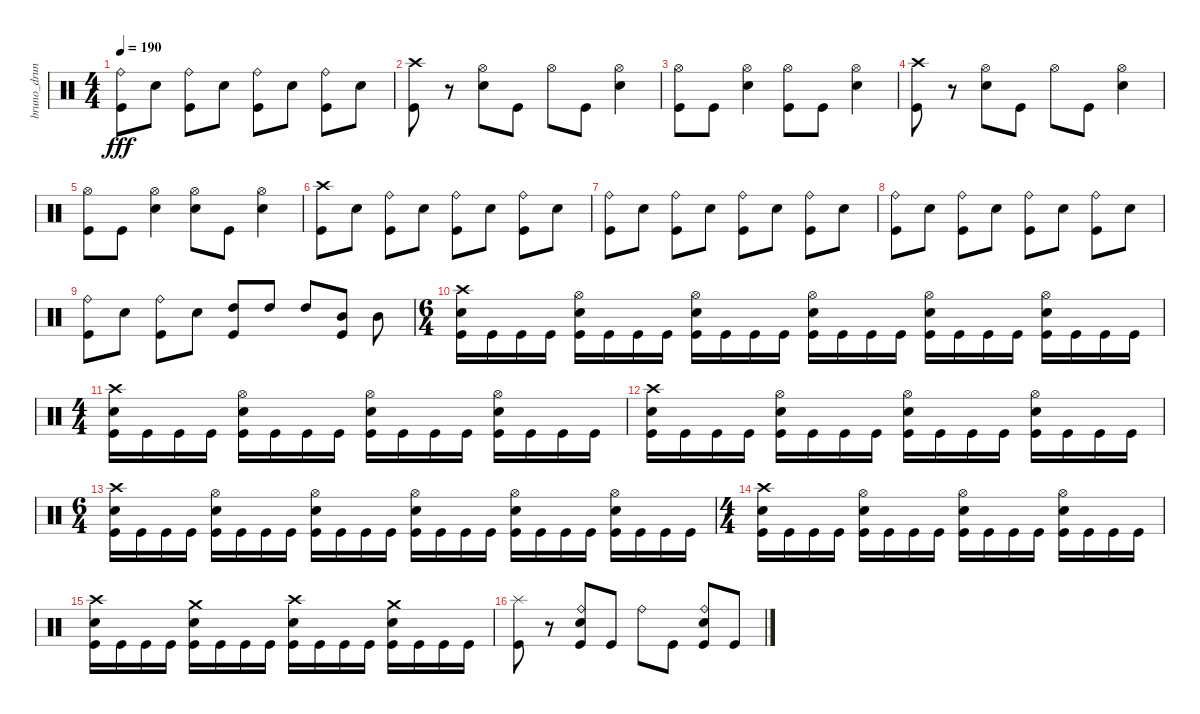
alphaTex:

\track ("bruno_druns" "bruno_drun") {instrument percussion}
\staff {score}
\articulation defaults
\ts (4 4)
\tempo 190
\clef neutral
\ks c
("Kick (hit)" "Ride (bell)").8{dy fff} "Electric Snare (hit)".8 ("Kick (hit)" "Ride (bell)").8 "Electric Snare (hit)".8 ("Kick (hit)" "Ride (bell)").8 "Electric Snare (hit)".8 ("Kick (hit)" "Ride (bell)").8 "Electric Snare (hit)".8 |
("Kick (hit)" "Crash high (hit)").8 r.8 ("Electric Snare (hit)" "Hi-Hat (open)").8 "Kick (hit)".8 "Hi-Hat (open)".8 "Kick (hit)".8 ("Electric Snare (hit)" "Hi-Hat (open)").4 |
("Kick (hit)" "Hi-Hat (open)").8 "Kick (hit)".8 ("Electric Snare (hit)" "Hi-Hat (open)").4 ("Kick (hit)" "Hi-Hat (open)").8 "Kick (hit)".8 ("Electric Snare (hit)" "Hi-Hat (open)").4 |
("Kick (hit)" "Crash high (hit)").8 r.8 ("Electric Snare (hit)" "Hi-Hat (open)").8 "Kick (hit)".8 "Hi-Hat (open)".8 "Kick (hit)".8 ("Electric Snare (hit)" "Hi-Hat (open)").4 |
("Kick (hit)" "Hi-Hat (open)").8 "Kick (hit)".8 ("Electric Snare (hit)" "Hi-Hat (open)").4 ("Electric Snare (hit)" "Hi-Hat (open)").8 "Kick (hit)".8 ("Electric Snare (hit)" "Hi-Hat (open)").4 |
("Kick (hit)" "Crash high (hit)").8 "Electric Snare (hit)".8 ("Kick (hit)" "Ride (bell)").8 "Electric Snare (hit)".8 ("Kick (hit)" "Ride (bell)").8 "Electric Snare (hit)".8 ("Kick (hit)" "Ride (bell)").8 "Electric Snare (hit)".8 |
("Kick (hit)" "Ride (bell)").8 "Electric Snare (hit)".8 ("Kick (hit)" "Ride (bell)").8 "Electric Snare (hit)".8 ("Kick (hit)" "Ride (bell)").8 "Electric Snare (hit)".8 ("Kick (hit)" "Ride (bell)").8 "Electric Snare (hit)".8 |
("Kick (hit)" "Ride (bell)").8 "Electric Snare (hit)".8 ("Kick (hit)" "Ride (bell)").8 "Electric Snare (hit)".8 ("Kick (hit)" "Ride (bell)").8 "Electric Snare (hit)".8 ("Kick (hit)" "Ride (bell)").8 "Electric Snare (hit)".8 |
("Kick (hit)" "Ride (bell)").8 "Electric Snare (hit)".8 ("Kick (hit)" "Ride (bell)").8 "Electric Snare (hit)".8 ("Kick (hit)" "High Tom (hit)").8 "High Tom (hit)".8 "High Tom (hit)".8 ("Kick (hit)" "Mid Tom (hit)").8 "Mid Tom (hit)".8 |
\ts (6 4)
("Kick (hit)" "Electric Snare (hit)" "Crash high (hit)").16 "Kick (hit)".16 "Kick (hit)".16 "Kick (hit)".16 ("Kick (hit)" "Electric Snare (hit)" "Hi-Hat (open)").16 "Kick (hit)".16 "Kick (hit)".16 "Kick (hit)".16 ("Kick (hit)" "Electric Snare (hit)" "Hi-Hat (open)").16 "Kick (hit)".16 "Kick (hit)".16 "Kick (hit)".16 ("Kick (hit)" "Electric Snare (hit)" "Hi-Hat (open)").16 "Kick (hit)".16 "Kick (hit)".16 "Kick (hit)".16 ("Kick (hit)" "Electric Snare (hit)" "Hi-Hat (open)").16 "Kick (hit)".16 "Kick (hit)".16 "Kick (hit)".16 ("Kick (hit)" "Electric Snare (hit)" "Hi-Hat (open)").16 "Kick (hit)".16 "Kick (hit)".16 "Kick (hit)".16 |
\ts (4 4)
("Kick (hit)" "Electric Snare (hit)" "Crash high (hit)").16 "Kick (hit)".16 "Kick (hit)".16 "Kick (hit)".16 ("Kick (hit)" "Electric Snare (hit)" "Hi-Hat (open)").16 "Kick (hit)".16 "Kick (hit)".16 "Kick (hit)".16 ("Kick (hit)" "Electric Snare (hit)" "Hi-Hat (open)").16 "Kick (hit)".16 "Kick (hit)".16 "Kick (hit)".16 ("Kick (hit)" "Electric Snare (hit)" "Hi-Hat (open)").16 "Kick (hit)".16 "Kick (hit)".16 "Kick (hit)".16 |
("Kick (hit)" "Electric Snare (hit)" "Crash high (hit)").16 "Kick (hit)".16 "Kick (hit)".16 "Kick (hit)".16 ("Kick (hit)" "Electric Snare (hit)" "Hi-Hat (open)").16 "Kick (hit)".16 "Kick (hit)".16 "Kick (hit)".16 ("Kick (hit)" "Electric Snare (hit)" "Hi-Hat (open)").16 "Kick (hit)".16 "Kick (hit)".16 "Kick (hit)".16 ("Kick (hit)" "Electric Snare (hit)" "Hi-Hat (open)").16 "Kick (hit)".16 "Kick (hit)".16 "Kick (hit)".16 |
\ts (6 4)
("Kick (hit)" "Electric Snare (hit)" "Crash high (hit)").16 "Kick (hit)".16 "Kick (hit)".16 "Kick (hit)".16 ("Kick (hit)" "Electric Snare (hit)" "Hi-Hat (open)").16 "Kick (hit)".16 "Kick (hit)".16 "Kick (hit)".16 ("Kick (hit)" "Electric Snare (hit)" "Hi-Hat (open)").16 "Kick (hit)".16 "Kick (hit)".16 "Kick (hit)".16 ("Kick (hit)" "Electric Snare (hit)" "Hi-Hat (open)").16 "Kick (hit)".16 "Kick (hit)".16 "Kick (hit)".16 ("Kick (hit)" "Electric Snare (hit)" "Hi-Hat (open)").16 "Kick (hit)".16 "Kick (hit)".16 "Kick (hit)".16 ("Kick (hit)" "Electric Snare (hit)" "Hi-Hat (open)").16 "Kick (hit)".16 "Kick (hit)".16 "Kick (hit)".16 |
\ts (4 4)
("Kick (hit)" "Electric Snare (hit)" "Crash high (hit)").16 "Kick (hit)".16 "Kick (hit)".16 "Kick (hit)".16 ("Kick (hit)" "Electric Snare (hit)" "Hi-Hat (open)").16 "Kick (hit)".16 "Kick (hit)".16 "Kick (hit)".16 ("Kick (hit)" "Electric Snare (hit)" "Hi-Hat (open)").16 "Kick (hit)".16 "Kick (hit)".16 "Kick (hit)".16 ("Kick (hit)" "Electric Snare (hit)" "Hi-Hat (open)").16 "Kick (hit)".16 "Kick (hit)".16 "Kick (hit)".16 |
("Kick (hit)" "Electric Snare (hit)" "Crash high (hit)").16 "Kick (hit)".16 "Kick (hit)".16 "Kick (hit)".16 ("Kick (hit)" "Electric Snare (hit)" "Crash medium (hit)").16 "Kick (hit)".16 "Kick (hit)".16 "Kick (hit)".16 ("Kick (hit)" "Electric Snare (hit)" "Crash high (hit)").16 "Kick (hit)".16 "Kick (hit)".16 "Kick (hit)".16 ("Kick (hit)" "Electric Snare (hit)" "Crash medium (hit)").16 "Kick (hit)".16 "Kick (hit)".16 "Kick (hit)".16 |
("Kick (hit)" "Splash (hit)").8 r.8 ("Kick (hit)" "Electric Snare (hit)" "Ride (bell)").8 "Kick (hit)".8 "Ride (bell)".8 "Kick (hit)".8 ("Kick (hit)" "Electric Snare (hit)" "Ride (bell)").8 "Kick (hit)".8
